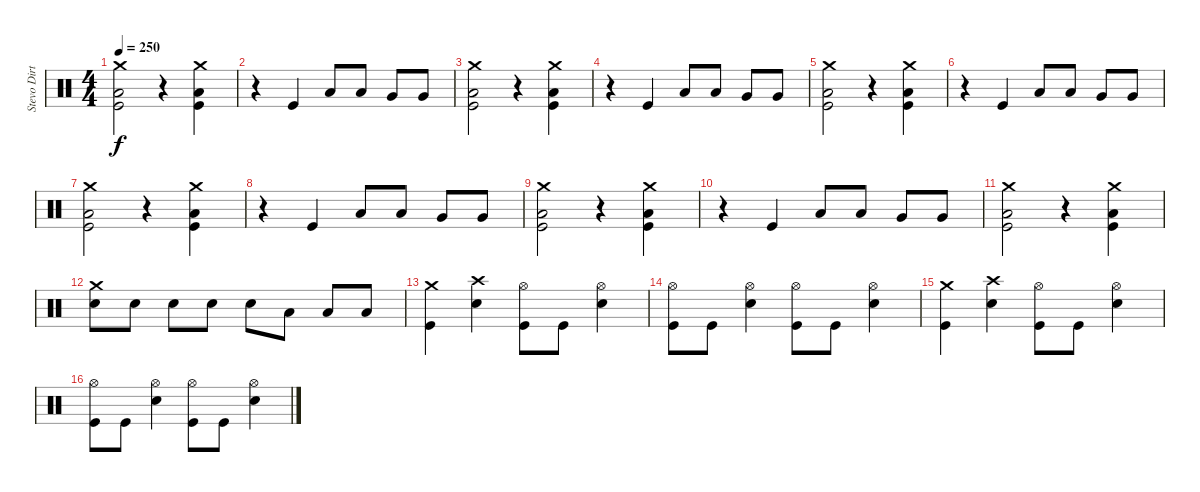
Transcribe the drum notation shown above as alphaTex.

\track ("Stevo Dirty Poo" "Stevo Dirt") {instrument percussion}
\staff {score}
\articulation defaults
\ts (4 4)
\tempo 250
\clef neutral
\ks c
("Crash medium (hit)" "Low Floor Tom (hit)" "Kick (hit)").2{dy f} r.4 ("Crash medium (hit)" "Low Floor Tom (hit)" "Kick (hit)").4 |
r.4 "Kick (hit)".4 "Low Tom (hit)".8 "Low Tom (hit)".8 "Very Low Tom (hit)".8 "Very Low Tom (hit)".8 |
("Crash medium (hit)" "Low Floor Tom (hit)" "Kick (hit)").2 r.4 ("Crash medium (hit)" "Low Floor Tom (hit)" "Kick (hit)").4 |
r.4 "Kick (hit)".4 "Low Tom (hit)".8 "Low Tom (hit)".8 "Very Low Tom (hit)".8 "Very Low Tom (hit)".8 |
("Crash medium (hit)" "Low Floor Tom (hit)" "Kick (hit)").2 r.4 ("Crash medium (hit)" "Low Floor Tom (hit)" "Kick (hit)").4 |
r.4 "Kick (hit)".4 "Low Tom (hit)".8 "Low Tom (hit)".8 "Very Low Tom (hit)".8 "Very Low Tom (hit)".8 |
("Crash medium (hit)" "Low Floor Tom (hit)" "Kick (hit)").2 r.4 ("Crash medium (hit)" "Low Floor Tom (hit)" "Kick (hit)").4 |
r.4 "Kick (hit)".4 "Low Tom (hit)".8 "Low Tom (hit)".8 "Very Low Tom (hit)".8 "Very Low Tom (hit)".8 |
("Crash medium (hit)" "Low Floor Tom (hit)" "Kick (hit)").2 r.4 ("Crash medium (hit)" "Low Floor Tom (hit)" "Kick (hit)").4 |
r.4 "Kick (hit)".4 "Low Tom (hit)".8 "Low Tom (hit)".8 "Very Low Tom (hit)".8 "Very Low Tom (hit)".8 |
("Crash medium (hit)" "Low Floor Tom (hit)" "Kick (hit)").2 r.4 ("Crash medium (hit)" "Low Floor Tom (hit)" "Kick (hit)").4 |
("Crash medium (hit)" "Snare (hit) 2").8 "Snare (hit) 2".8 "Snare (hit) 2".8 "Snare (hit) 2".8 "Snare (hit) 2".8 "Low Tom (hit)".8 "Low Tom (hit)".8 "Low Tom (hit)".8 |
("Crash medium (hit)" "Kick (hit)").4 ("Crash high (hit)" "Snare (hit) 2").4 ("Hi-Hat (open)" "Kick (hit)").8 "Kick (hit)".8 ("Hi-Hat (open)" "Snare (hit) 2").4 |
("Hi-Hat (open)" "Kick (hit)").8 "Kick (hit)".8 ("Hi-Hat (open)" "Snare (hit) 2").4 ("Hi-Hat (open)" "Kick (hit)").8 "Kick (hit)".8 ("Hi-Hat (open)" "Snare (hit) 2").4 |
("Crash medium (hit)" "Kick (hit)").4 ("Crash high (hit)" "Snare (hit) 2").4 ("Hi-Hat (open)" "Kick (hit)").8 "Kick (hit)".8 ("Hi-Hat (open)" "Snare (hit) 2").4 |
("Hi-Hat (open)" "Kick (hit)").8 "Kick (hit)".8 ("Hi-Hat (open)" "Snare (hit) 2").4 ("Hi-Hat (open)" "Kick (hit)").8 "Kick (hit)".8 ("Hi-Hat (open)" "Snare (hit) 2").4
